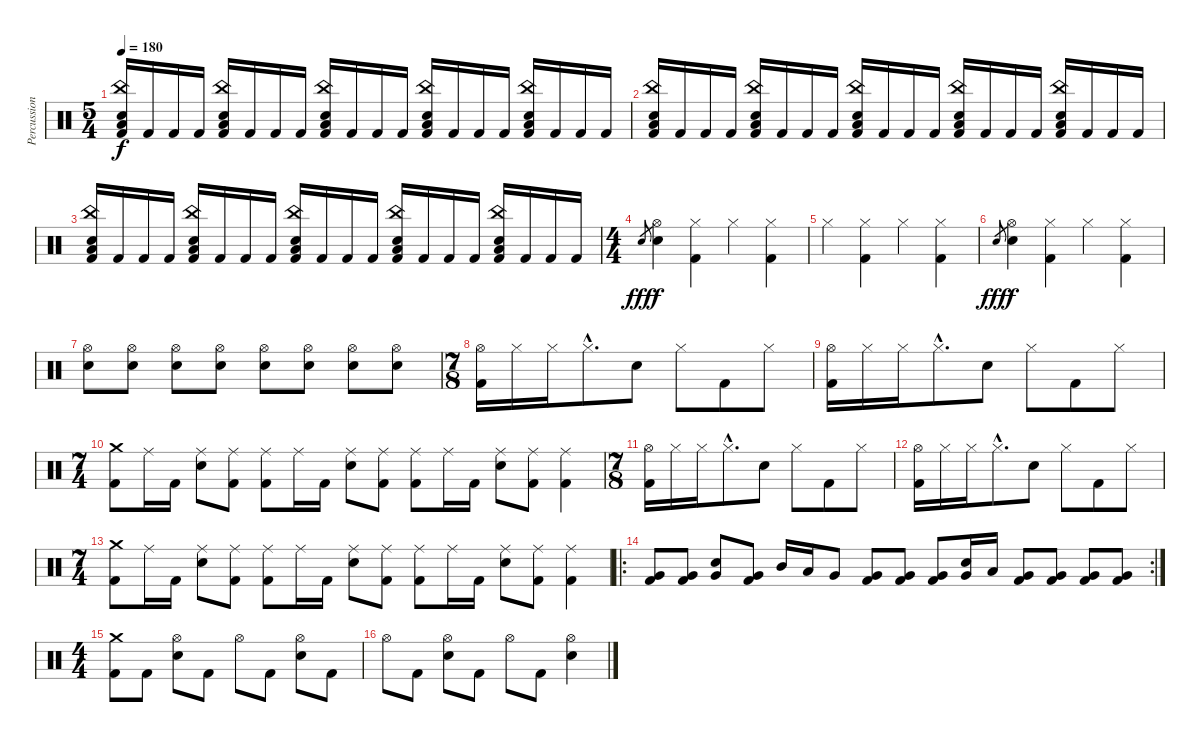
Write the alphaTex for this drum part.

\track ("Percussion" "Percussion") {instrument percussion}
\staff {score}
\articulation defaults
\ts (5 4)
\tempo 180
\clef neutral
\ks c
("Low Tom (hit)" "China (hit)" "Electric Snare (hit)" "Kick (hit) 2").16{dy f} "Kick (hit) 2".16 "Kick (hit) 2".16 "Kick (hit) 2".16 ("Low Tom (hit)" "China (hit)" "Electric Snare (hit)" "Kick (hit) 2").16 "Kick (hit) 2".16 "Kick (hit) 2".16 "Kick (hit) 2".16 ("Low Tom (hit)" "China (hit)" "Electric Snare (hit)" "Kick (hit) 2").16 "Kick (hit) 2".16 "Kick (hit) 2".16 "Kick (hit) 2".16 ("Low Tom (hit)" "China (hit)" "Electric Snare (hit)" "Kick (hit) 2").16 "Kick (hit) 2".16 "Kick (hit) 2".16 "Kick (hit) 2".16 ("Low Tom (hit)" "China (hit)" "Electric Snare (hit)" "Kick (hit) 2").16 "Kick (hit) 2".16 "Kick (hit) 2".16 "Kick (hit) 2".16 |
("Low Tom (hit)" "China (hit)" "Electric Snare (hit)" "Kick (hit) 2").16 "Kick (hit) 2".16 "Kick (hit) 2".16 "Kick (hit) 2".16 ("Low Tom (hit)" "China (hit)" "Electric Snare (hit)" "Kick (hit) 2").16 "Kick (hit) 2".16 "Kick (hit) 2".16 "Kick (hit) 2".16 ("Low Tom (hit)" "China (hit)" "Electric Snare (hit)" "Kick (hit) 2").16 "Kick (hit) 2".16 "Kick (hit) 2".16 "Kick (hit) 2".16 ("Low Tom (hit)" "China (hit)" "Electric Snare (hit)" "Kick (hit) 2").16 "Kick (hit) 2".16 "Kick (hit) 2".16 "Kick (hit) 2".16 ("Low Tom (hit)" "China (hit)" "Electric Snare (hit)" "Kick (hit) 2").16 "Kick (hit) 2".16 "Kick (hit) 2".16 "Kick (hit) 2".16 |
("Low Tom (hit)" "China (hit)" "Electric Snare (hit)" "Kick (hit) 2").16 "Kick (hit) 2".16 "Kick (hit) 2".16 "Kick (hit) 2".16 ("Low Tom (hit)" "China (hit)" "Electric Snare (hit)" "Kick (hit) 2").16 "Kick (hit) 2".16 "Kick (hit) 2".16 "Kick (hit) 2".16 ("Low Tom (hit)" "China (hit)" "Electric Snare (hit)" "Kick (hit) 2").16 "Kick (hit) 2".16 "Kick (hit) 2".16 "Kick (hit) 2".16 ("Low Tom (hit)" "China (hit)" "Electric Snare (hit)" "Kick (hit) 2").16 "Kick (hit) 2".16 "Kick (hit) 2".16 "Kick (hit) 2".16 ("Low Tom (hit)" "China (hit)" "Electric Snare (hit)" "Kick (hit) 2").16 "Kick (hit) 2".16 "Kick (hit) 2".16 "Kick (hit) 2".16 |
\ts (4 4)
"Electric Snare (hit)".8{gr dy fff} ("Hi-Hat (open)" "Electric Snare (hit)").4{dy f} ("Hi-Hat (closed)" "Kick (hit) 2").4 "Hi-Hat (closed)".4 ("Hi-Hat (closed)" "Kick (hit) 2").4 |
"Hi-Hat (closed)".4 ("Hi-Hat (closed)" "Kick (hit) 2").4 "Hi-Hat (closed)".4 ("Hi-Hat (closed)" "Kick (hit) 2").4 |
"Electric Snare (hit)".8{gr dy fff} ("Hi-Hat (open)" "Electric Snare (hit)").4{dy f} ("Hi-Hat (closed)" "Kick (hit) 2").4 "Hi-Hat (closed)".4 ("Hi-Hat (closed)" "Kick (hit) 2").4 |
("Hi-Hat (open)" "Electric Snare (hit)").8 ("Hi-Hat (open)" "Electric Snare (hit)").8 ("Hi-Hat (open)" "Electric Snare (hit)").8 ("Hi-Hat (open)" "Electric Snare (hit)").8 ("Hi-Hat (open)" "Electric Snare (hit)").8 ("Hi-Hat (open)" "Electric Snare (hit)").8 ("Hi-Hat (open)" "Electric Snare (hit)").8 ("Hi-Hat (open)" "Electric Snare (hit)").8 |
\ts (7 8)
("Hi-Hat (open)" "Kick (hit) 2").16 "Hi-Hat (closed)".16 "Hi-Hat (closed)".16 "Hi-Hat (closed)"{hac}.8{d} "Electric Snare (hit)".8 "Hi-Hat (closed)".8 "Kick (hit) 2".8 "Hi-Hat (closed)".8 |
("Hi-Hat (open)" "Kick (hit) 2").16 "Hi-Hat (closed)".16 "Hi-Hat (closed)".16 "Hi-Hat (closed)"{hac}.8{d} "Electric Snare (hit)".8 "Hi-Hat (closed)".8 "Kick (hit) 2".8 "Hi-Hat (closed)".8 |
\ts (7 4)
("Crash medium (hit)" "Kick (hit) 2").8 "Ride (middle)".16 "Kick (hit) 2".16 ("Ride (middle)" "Electric Snare (hit)").8 ("Ride (middle)" "Kick (hit) 2").8 ("Ride (middle)" "Kick (hit) 2").8 "Ride (middle)".16 "Kick (hit) 2".16 ("Ride (middle)" "Electric Snare (hit)").8 ("Ride (middle)" "Kick (hit) 2").8 ("Ride (middle)" "Kick (hit) 2").8 "Ride (middle)".16 "Kick (hit) 2".16 ("Ride (middle)" "Electric Snare (hit)").8 ("Ride (middle)" "Kick (hit) 2").8 ("Ride (middle)" "Kick (hit) 2").4 |
\ts (7 8)
("Hi-Hat (open)" "Kick (hit) 2").16 "Hi-Hat (closed)".16 "Hi-Hat (closed)".16 "Hi-Hat (closed)"{hac}.8{d} "Electric Snare (hit)".8 "Hi-Hat (closed)".8 "Kick (hit) 2".8 "Hi-Hat (closed)".8 |
("Hi-Hat (open)" "Kick (hit) 2").16 "Hi-Hat (closed)".16 "Hi-Hat (closed)".16 "Hi-Hat (closed)"{hac}.8{d} "Electric Snare (hit)".8 "Hi-Hat (closed)".8 "Kick (hit) 2".8 "Hi-Hat (closed)".8 |
\ts (7 4)
("Crash medium (hit)" "Kick (hit) 2").8 "Ride (middle)".16 "Kick (hit) 2".16 ("Ride (middle)" "Electric Snare (hit)").8 ("Ride (middle)" "Kick (hit) 2").8 ("Ride (middle)" "Kick (hit) 2").8 "Ride (middle)".16 "Kick (hit) 2".16 ("Ride (middle)" "Electric Snare (hit)").8 ("Ride (middle)" "Kick (hit) 2").8 ("Ride (middle)" "Kick (hit) 2").8 "Ride (middle)".16 "Kick (hit) 2".16 ("Ride (middle)" "Electric Snare (hit)").8 ("Ride (middle)" "Kick (hit) 2").8 ("Ride (middle)" "Kick (hit) 2").4 |
\ro
\rc 2
("Very Low Tom (hit)" "Kick (hit) 2").8 ("Very Low Tom (hit)" "Kick (hit) 2").8 ("Very Low Tom (hit)" "Electric Snare (hit)").8 ("Very Low Tom (hit)" "Kick (hit) 2").8 "Mid Tom (hit)".16 "Low Tom (hit)".16 "Very Low Tom (hit)".8 ("Very Low Tom (hit)" "Kick (hit) 2").8 ("Very Low Tom (hit)" "Kick (hit) 2").8 ("Very Low Tom (hit)" "Kick (hit) 2").8 ("Very Low Tom (hit)" "Electric Snare (hit)").16 "Low Tom (hit)".16 ("Very Low Tom (hit)" "Kick (hit) 2").8 ("Very Low Tom (hit)" "Kick (hit) 2").8 ("Very Low Tom (hit)" "Kick (hit) 2").8 ("Very Low Tom (hit)" "Kick (hit) 2").8 |
\ts (4 4)
("Crash medium (hit)" "Kick (hit) 2").8 "Kick (hit) 2".8 ("Hi-Hat (open)" "Electric Snare (hit)").8 "Kick (hit) 2".8 "Hi-Hat (open)".8 "Kick (hit) 2".8 ("Hi-Hat (open)" "Electric Snare (hit)").8 "Kick (hit) 2".8 |
"Hi-Hat (open)".8 "Kick (hit) 2".8 ("Hi-Hat (open)" "Electric Snare (hit)").8 "Kick (hit) 2".8 "Hi-Hat (open)".8 "Kick (hit) 2".8 ("Hi-Hat (open)" "Electric Snare (hit)").4
